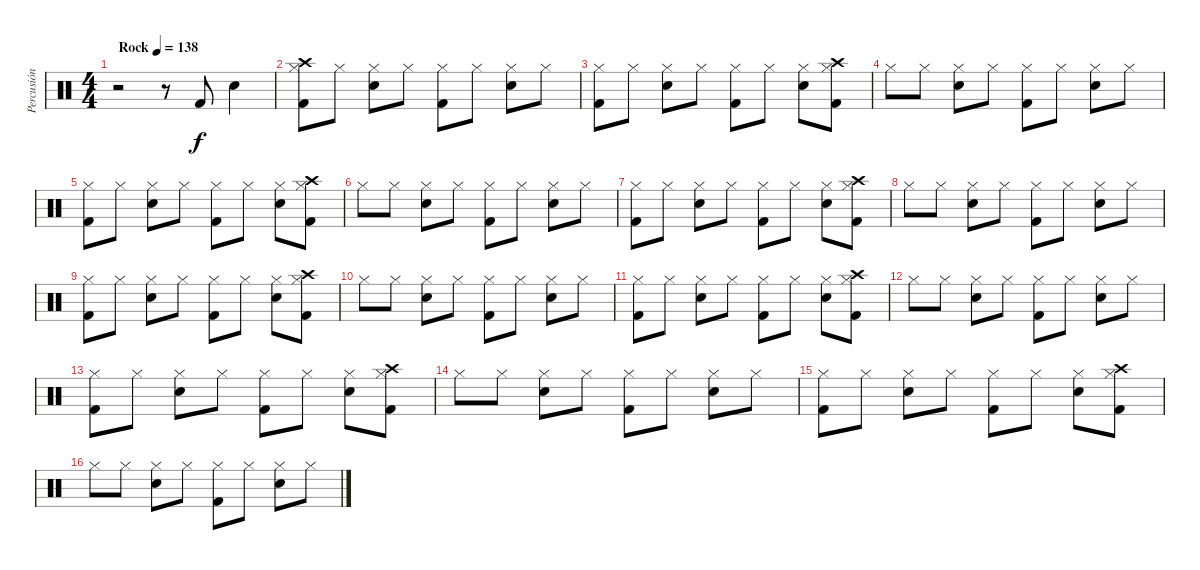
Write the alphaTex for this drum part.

\track ("Percusión" "Percusión") {instrument percussion bank 10}
\staff {score}
\articulation defaults
\ts (4 4)
\tempo (138 "Rock")
\clef neutral
\ks c
r.2{dy f} r.8 "Kick (hit) 2".8 "Snare (hit) 2".4 |
("Hi-Hat (closed)" "Crash high (hit)" "Kick (hit) 2").8 "Hi-Hat (closed)".8 ("Hi-Hat (closed)" "Snare (hit) 2").8 "Hi-Hat (closed)".8 ("Hi-Hat (closed)" "Kick (hit) 2").8 "Hi-Hat (closed)".8 ("Hi-Hat (closed)" "Snare (hit) 2").8 "Hi-Hat (closed)".8 |
("Hi-Hat (closed)" "Kick (hit) 2").8 "Hi-Hat (closed)".8 ("Hi-Hat (closed)" "Snare (hit) 2").8 "Hi-Hat (closed)".8 ("Hi-Hat (closed)" "Kick (hit) 2").8 "Hi-Hat (closed)".8 ("Hi-Hat (closed)" "Snare (hit) 2").8 ("Hi-Hat (closed)" "Crash high (hit)" "Kick (hit) 2").8 |
"Hi-Hat (closed)".8 "Hi-Hat (closed)".8 ("Hi-Hat (closed)" "Snare (hit) 2").8 "Hi-Hat (closed)".8 ("Hi-Hat (closed)" "Kick (hit) 2").8 "Hi-Hat (closed)".8 ("Hi-Hat (closed)" "Snare (hit) 2").8 "Hi-Hat (closed)".8 |
("Hi-Hat (closed)" "Kick (hit) 2").8 "Hi-Hat (closed)".8 ("Hi-Hat (closed)" "Snare (hit) 2").8 "Hi-Hat (closed)".8 ("Hi-Hat (closed)" "Kick (hit) 2").8 "Hi-Hat (closed)".8 ("Hi-Hat (closed)" "Snare (hit) 2").8 ("Hi-Hat (closed)" "Crash high (hit)" "Kick (hit) 2").8 |
"Hi-Hat (closed)".8 "Hi-Hat (closed)".8 ("Hi-Hat (closed)" "Snare (hit) 2").8 "Hi-Hat (closed)".8 ("Hi-Hat (closed)" "Kick (hit) 2").8 "Hi-Hat (closed)".8 ("Hi-Hat (closed)" "Snare (hit) 2").8 "Hi-Hat (closed)".8 |
("Hi-Hat (closed)" "Kick (hit) 2").8 "Hi-Hat (closed)".8 ("Hi-Hat (closed)" "Snare (hit) 2").8 "Hi-Hat (closed)".8 ("Hi-Hat (closed)" "Kick (hit) 2").8 "Hi-Hat (closed)".8 ("Hi-Hat (closed)" "Snare (hit) 2").8 ("Hi-Hat (closed)" "Crash high (hit)" "Kick (hit) 2").8 |
"Hi-Hat (closed)".8 "Hi-Hat (closed)".8 ("Hi-Hat (closed)" "Snare (hit) 2").8 "Hi-Hat (closed)".8 ("Hi-Hat (closed)" "Kick (hit) 2").8 "Hi-Hat (closed)".8 ("Hi-Hat (closed)" "Snare (hit) 2").8 "Hi-Hat (closed)".8 |
("Hi-Hat (closed)" "Kick (hit) 2").8 "Hi-Hat (closed)".8 ("Hi-Hat (closed)" "Snare (hit) 2").8 "Hi-Hat (closed)".8 ("Hi-Hat (closed)" "Kick (hit) 2").8 "Hi-Hat (closed)".8 ("Hi-Hat (closed)" "Snare (hit) 2").8 ("Hi-Hat (closed)" "Crash high (hit)" "Kick (hit) 2").8 |
"Hi-Hat (closed)".8 "Hi-Hat (closed)".8 ("Hi-Hat (closed)" "Snare (hit) 2").8 "Hi-Hat (closed)".8 ("Hi-Hat (closed)" "Kick (hit) 2").8 "Hi-Hat (closed)".8 ("Hi-Hat (closed)" "Snare (hit) 2").8 "Hi-Hat (closed)".8 |
("Hi-Hat (closed)" "Kick (hit) 2").8 "Hi-Hat (closed)".8 ("Hi-Hat (closed)" "Snare (hit) 2").8 "Hi-Hat (closed)".8 ("Hi-Hat (closed)" "Kick (hit) 2").8 "Hi-Hat (closed)".8 ("Hi-Hat (closed)" "Snare (hit) 2").8 ("Hi-Hat (closed)" "Crash high (hit)" "Kick (hit) 2").8 |
"Hi-Hat (closed)".8 "Hi-Hat (closed)".8 ("Hi-Hat (closed)" "Snare (hit) 2").8 "Hi-Hat (closed)".8 ("Hi-Hat (closed)" "Kick (hit) 2").8 "Hi-Hat (closed)".8 ("Hi-Hat (closed)" "Snare (hit) 2").8 "Hi-Hat (closed)".8 |
("Hi-Hat (closed)" "Kick (hit) 2").8 "Hi-Hat (closed)".8 ("Hi-Hat (closed)" "Snare (hit) 2").8 "Hi-Hat (closed)".8 ("Hi-Hat (closed)" "Kick (hit) 2").8 "Hi-Hat (closed)".8 ("Hi-Hat (closed)" "Snare (hit) 2").8 ("Hi-Hat (closed)" "Crash high (hit)" "Kick (hit) 2").8 |
"Hi-Hat (closed)".8 "Hi-Hat (closed)".8 ("Hi-Hat (closed)" "Snare (hit) 2").8 "Hi-Hat (closed)".8 ("Hi-Hat (closed)" "Kick (hit) 2").8 "Hi-Hat (closed)".8 ("Hi-Hat (closed)" "Snare (hit) 2").8 "Hi-Hat (closed)".8 |
("Hi-Hat (closed)" "Kick (hit) 2").8 "Hi-Hat (closed)".8 ("Hi-Hat (closed)" "Snare (hit) 2").8 "Hi-Hat (closed)".8 ("Hi-Hat (closed)" "Kick (hit) 2").8 "Hi-Hat (closed)".8 ("Hi-Hat (closed)" "Snare (hit) 2").8 ("Hi-Hat (closed)" "Crash high (hit)" "Kick (hit) 2").8 |
"Hi-Hat (closed)".8 "Hi-Hat (closed)".8 ("Hi-Hat (closed)" "Snare (hit) 2").8 "Hi-Hat (closed)".8 ("Hi-Hat (closed)" "Kick (hit) 2").8 "Hi-Hat (closed)".8 ("Hi-Hat (closed)" "Snare (hit) 2").8 "Hi-Hat (closed)".8
